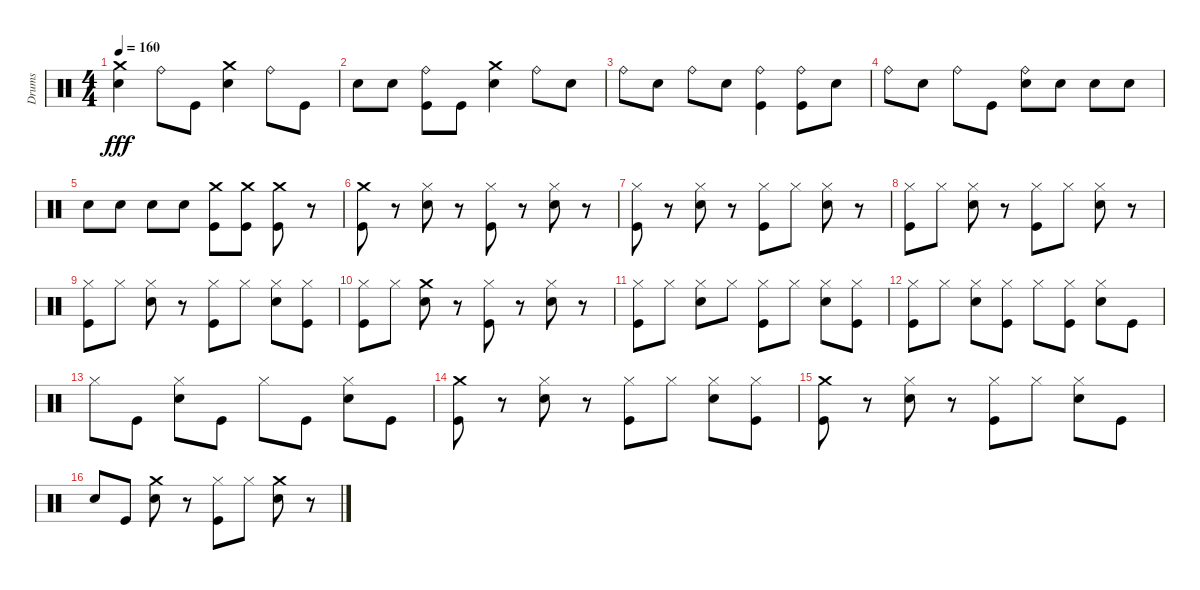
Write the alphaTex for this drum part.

\track ("Drums" "Drums") {instrument percussion}
\staff {score}
\articulation defaults
\ts (4 4)
\tempo 160
\clef neutral
\ks c
("Snare (hit) 2" "Crash medium (hit)").4{dy fff} "Ride (bell)".8 "Kick (hit)".8 ("Snare (hit) 2" "Crash medium (hit)").4 "Ride (bell)".8 "Kick (hit)".8 |
"Snare (hit) 2".8 "Snare (hit) 2".8 ("Kick (hit)" "Ride (bell)").8 "Kick (hit)".8 ("Snare (hit) 2" "Crash medium (hit)").4 "Ride (bell)".8 "Snare (hit) 2".8 |
"Ride (bell)".8 "Snare (hit) 2".8 "Ride (bell)".8 "Snare (hit) 2".8 ("Kick (hit)" "Ride (bell)").4 ("Kick (hit)" "Ride (bell)").8 "Snare (hit) 2".8 |
"Ride (bell)".8 "Snare (hit) 2".8 "Ride (bell)".8 "Kick (hit)".8 ("Snare (hit) 2" "Ride (bell)").8 "Snare (hit) 2".8 "Snare (hit) 2".8 "Snare (hit) 2".8 |
"Snare (hit) 2".8 "Snare (hit) 2".8 "Snare (hit) 2".8 "Snare (hit) 2".8 ("Crash medium (hit)" "Kick (hit)").8 ("Crash medium (hit)" "Kick (hit)").8 ("Kick (hit)" "Crash medium (hit)").8 r.8 |
("Crash medium (hit)" "Kick (hit)").8 r.8 ("Hi-Hat (closed)" "Snare (hit) 2").8 r.8 ("Kick (hit)" "Hi-Hat (closed)").8 r.8 ("Snare (hit) 2" "Hi-Hat (closed)").8 r.8 |
("Hi-Hat (closed)" "Kick (hit)").8 r.8 ("Snare (hit) 2" "Hi-Hat (closed)").8 r.8 ("Kick (hit)" "Hi-Hat (closed)").8 "Hi-Hat (closed)".8 ("Snare (hit) 2" "Hi-Hat (closed)").8 r.8 |
("Hi-Hat (closed)" "Kick (hit)").8 "Hi-Hat (closed)".8 ("Snare (hit) 2" "Hi-Hat (closed)").8 r.8 ("Kick (hit)" "Hi-Hat (closed)").8 "Hi-Hat (closed)".8 ("Snare (hit) 2" "Hi-Hat (closed)").8 r.8 |
("Hi-Hat (closed)" "Kick (hit)").8 "Hi-Hat (closed)".8 ("Snare (hit) 2" "Hi-Hat (closed)").8 r.8 ("Kick (hit)" "Hi-Hat (closed)").8 "Hi-Hat (closed)".8 ("Snare (hit) 2" "Hi-Hat (closed)").8 ("Kick (hit)" "Hi-Hat (closed)").8 |
("Hi-Hat (closed)" "Kick (hit)").8 "Hi-Hat (closed)".8 ("Crash medium (hit)" "Snare (hit) 2").8 r.8 ("Kick (hit)" "Hi-Hat (closed)").8 r.8 ("Snare (hit) 2" "Hi-Hat (closed)").8 r.8 |
("Hi-Hat (closed)" "Kick (hit)").8 "Hi-Hat (closed)".8 ("Snare (hit) 2" "Hi-Hat (closed)").8 "Hi-Hat (closed)".8 ("Kick (hit)" "Hi-Hat (closed)").8 "Hi-Hat (closed)".8 ("Snare (hit) 2" "Hi-Hat (closed)").8 ("Kick (hit)" "Hi-Hat (closed)").8 |
("Hi-Hat (closed)" "Kick (hit)").8 "Hi-Hat (closed)".8 ("Snare (hit) 2" "Hi-Hat (closed)").8 ("Kick (hit)" "Hi-Hat (closed)").8 "Hi-Hat (closed)".8 ("Kick (hit)" "Hi-Hat (closed)").8 ("Snare (hit) 2" "Hi-Hat (closed)").8 "Kick (hit)".8 |
"Hi-Hat (closed)".8 "Kick (hit)".8 ("Snare (hit) 2" "Hi-Hat (closed)").8 "Kick (hit)".8 "Hi-Hat (closed)".8 "Kick (hit)".8 ("Snare (hit) 2" "Hi-Hat (closed)").8 "Kick (hit)".8 |
("Crash medium (hit)" "Kick (hit)").8 r.8 ("Snare (hit) 2" "Hi-Hat (closed)").8 r.8 ("Kick (hit)" "Hi-Hat (closed)").8 "Hi-Hat (closed)".8 ("Snare (hit) 2" "Hi-Hat (closed)").8 ("Kick (hit)" "Hi-Hat (closed)").8 |
("Crash medium (hit)" "Kick (hit)").8 r.8 ("Snare (hit) 2" "Hi-Hat (closed)").8 r.8 ("Kick (hit)" "Hi-Hat (closed)").8 "Hi-Hat (closed)".8 ("Snare (hit) 2" "Hi-Hat (closed)").8 "Kick (hit)".8 |
"Snare (hit) 2".8 "Kick (hit)".8 ("Crash medium (hit)" "Snare (hit) 2").8 r.8 ("Kick (hit)" "Hi-Hat (closed)").8 "Hi-Hat (closed)".8 ("Crash medium (hit)" "Snare (hit) 2").8 r.8
